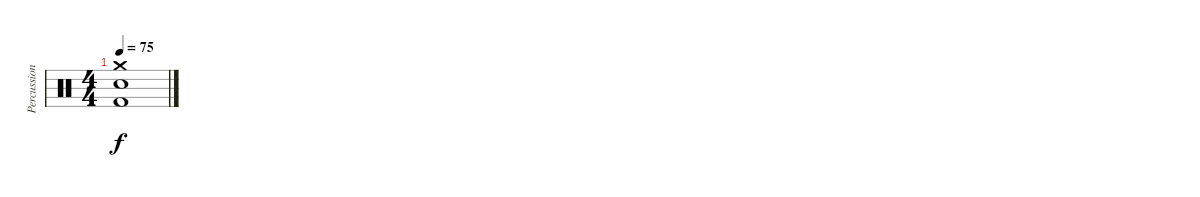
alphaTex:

\track ("Percussion" "Percussion") {instrument percussion}
\staff {score}
\articulation defaults
\ts (4 4)
\tempo 75
\clef neutral
\ks c
("Crash medium (hit)" "Electric Snare (hit)" "Kick (hit) 2").1{dy f}
